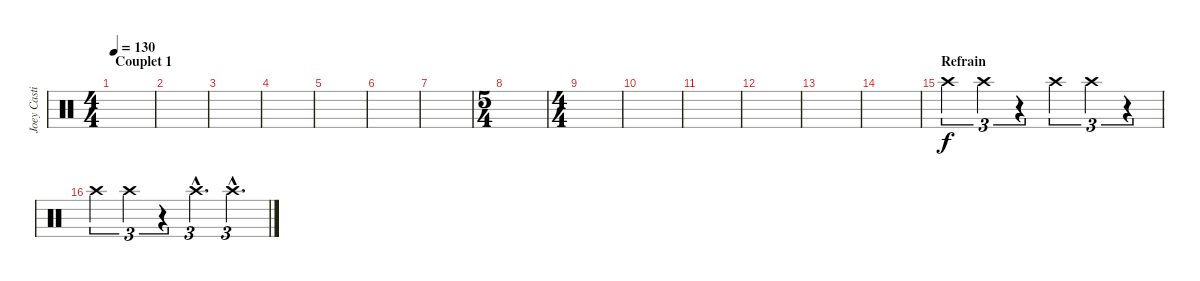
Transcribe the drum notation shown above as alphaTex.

\track ("Joey Castillo" "Joey Casti") {instrument percussion}
\staff {score}
\articulation defaults
\ts (4 4)
\section ("" "Couplet 1")
\tempo 130
\clef neutral
\ks c
|
|
|
|
|
|
|
\ts (5 4)
|
\ts (4 4)
|
|
|
|
|
|
\section ("" "Refrain")
"Crash high (hit)".4{tu (3 2)} "Crash high (hit)".4{tu (3 2)} r.4{tu (3 2)} "Crash high (hit)".4{tu (3 2)} "Crash high (hit)".4{tu (3 2)} r.4{tu (3 2)} |
"Crash high (hit)".4{tu (3 2)} "Crash high (hit)".4{tu (3 2)} r.4{tu (3 2)} "Crash high (hit)"{hac}.4{d tu (3 2)} "Crash high (hit)"{hac}.4{d tu (3 2)}
